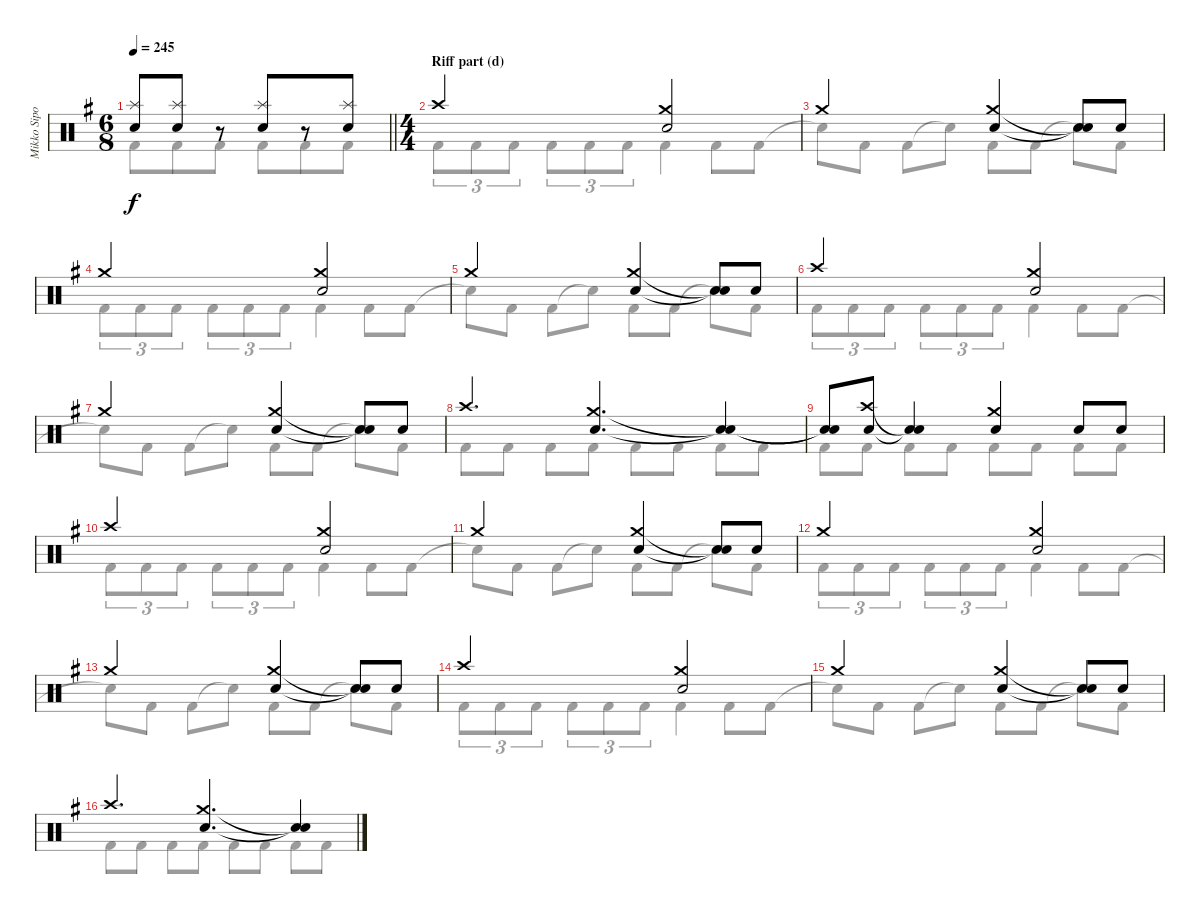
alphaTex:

\track ("Mikko Sipola (drums)" "Mikko Sipo") {instrument percussion}
\staff {score}
\articulation defaults
\voice
\ts (6 8)
\tempo 245
\clef neutral
\barLineRight lightlight
\ks eminor
("Splash (hit)" "Snare (hit) 2").8{dy f} ("Splash (hit)" "Snare (hit) 2").8 r.8 ("Splash (hit)" "Snare (hit) 2").8 r.8 ("Splash (hit)" "Snare (hit) 2").8 |
\ts (4 4)
\section ("" "Riff part (d)")
"Crash high (hit)".2 ("Crash medium (hit)" "Snare (hit) 2").2 |
"Crash medium (hit)".2 ("Crash medium (hit)" "Snare (hit) 2").4 ("Snare (hit)"{t} "Snare (hit)"{t}).8 "Snare (hit) 2".8 |
"Crash medium (hit)".2 ("Crash medium (hit)" "Snare (hit) 2").2 |
"Crash medium (hit)".2 ("Crash medium (hit)" "Snare (hit) 2").4 ("Snare (hit)"{t} "Snare (hit)"{t}).8 "Snare (hit) 2".8 |
"Crash high (hit)".2 ("Crash medium (hit)" "Snare (hit) 2").2 |
"Crash medium (hit)".2 ("Crash medium (hit)" "Snare (hit) 2").4 ("Snare (hit)"{t} "Snare (hit)"{t}).8 "Snare (hit) 2".8 |
"Crash high (hit)".4{d} ("Crash medium (hit)" "Snare (hit) 2").4{d} ("Snare (hit)"{t} "Snare (hit)"{t}).4 |
("Snare (hit)"{t} "Snare (hit)"{t}).8 ("Crash high (hit)" "Snare (hit) 2").8 ("Snare (hit)"{t} "Snare (hit)"{t}).4 ("Crash medium (hit)" "Snare (hit) 2").4 "Snare (hit) 2".8 "Snare (hit) 2".8 |
"Crash high (hit)".2 ("Crash medium (hit)" "Snare (hit) 2").2 |
"Crash medium (hit)".2 ("Crash medium (hit)" "Snare (hit) 2").4 ("Snare (hit)"{t} "Snare (hit)"{t}).8 "Snare (hit) 2".8 |
"Crash medium (hit)".2 ("Crash medium (hit)" "Snare (hit) 2").2 |
"Crash medium (hit)".2 ("Crash medium (hit)" "Snare (hit) 2").4 ("Snare (hit)"{t} "Snare (hit)"{t}).8 "Snare (hit) 2".8 |
"Crash high (hit)".2 ("Crash medium (hit)" "Snare (hit) 2").2 |
"Crash medium (hit)".2 ("Crash medium (hit)" "Snare (hit) 2").4 ("Snare (hit)"{t} "Snare (hit)"{t}).8 "Snare (hit) 2".8 |
"Crash high (hit)".4{d} ("Crash medium (hit)" "Snare (hit) 2").4{d} ("Snare (hit)"{t} "Snare (hit)"{t}).4
\voice
\clef neutral
\ottava regular
\simile none
\barLineRight lightlight
\ks eminor "Kick (hit) 2".8{dy f} "Kick (hit) 2".8 "Kick (hit) 2".8 "Kick (hit) 2".8 "Kick (hit) 2".8 "Kick (hit) 2".8
|
"Kick (hit) 2".8{tu (3 2)} "Kick (hit) 2".8{tu (3 2)} "Kick (hit) 2".8{tu (3 2)} "Kick (hit) 2".8{tu (3 2)} "Kick (hit) 2".8{tu (3 2)} "Kick (hit) 2".8{tu (3 2)} "Kick (hit) 2".4 "Kick (hit) 2".8 "Kick (hit) 2".8 |
"Snare (hit)"{t}.8 "Kick (hit) 2".8 "Kick (hit) 2".8 "Snare (hit)"{t}.8 "Kick (hit) 2".8 "Kick (hit) 2".8 "Snare (hit)"{t}.8 "Kick (hit) 2".8 |
"Kick (hit) 2".8{tu (3 2)} "Kick (hit) 2".8{tu (3 2)} "Kick (hit) 2".8{tu (3 2)} "Kick (hit) 2".8{tu (3 2)} "Kick (hit) 2".8{tu (3 2)} "Kick (hit) 2".8{tu (3 2)} "Kick (hit) 2".4 "Kick (hit) 2".8 "Kick (hit) 2".8 |
"Snare (hit)"{t}.8 "Kick (hit) 2".8 "Kick (hit) 2".8 "Snare (hit)"{t}.8 "Kick (hit) 2".8 "Kick (hit) 2".8 "Snare (hit)"{t}.8 "Kick (hit) 2".8 |
"Kick (hit) 2".8{tu (3 2)} "Kick (hit) 2".8{tu (3 2)} "Kick (hit) 2".8{tu (3 2)} "Kick (hit) 2".8{tu (3 2)} "Kick (hit) 2".8{tu (3 2)} "Kick (hit) 2".8{tu (3 2)} "Kick (hit) 2".4 "Kick (hit) 2".8 "Kick (hit) 2".8 |
"Snare (hit)"{t}.8 "Kick (hit) 2".8 "Kick (hit) 2".8 "Snare (hit)"{t}.8 "Kick (hit) 2".8 "Kick (hit) 2".8 "Snare (hit)"{t}.8 "Kick (hit) 2".8 |
"Kick (hit) 2".8 "Kick (hit) 2".8 "Kick (hit) 2".8 "Kick (hit) 2".8 "Kick (hit) 2".8 "Kick (hit) 2".8 "Kick (hit) 2".8 "Kick (hit) 2".8 |
"Kick (hit) 2".8 "Kick (hit) 2".8 "Kick (hit) 2".8 "Kick (hit) 2".8 "Kick (hit) 2".8 "Kick (hit) 2".8 "Kick (hit) 2".8 "Kick (hit) 2".8 |
"Kick (hit) 2".8{tu (3 2)} "Kick (hit) 2".8{tu (3 2)} "Kick (hit) 2".8{tu (3 2)} "Kick (hit) 2".8{tu (3 2)} "Kick (hit) 2".8{tu (3 2)} "Kick (hit) 2".8{tu (3 2)} "Kick (hit) 2".4 "Kick (hit) 2".8 "Kick (hit) 2".8 |
"Snare (hit)"{t}.8 "Kick (hit) 2".8 "Kick (hit) 2".8 "Snare (hit)"{t}.8 "Kick (hit) 2".8 "Kick (hit) 2".8 "Snare (hit)"{t}.8 "Kick (hit) 2".8 |
"Kick (hit) 2".8{tu (3 2)} "Kick (hit) 2".8{tu (3 2)} "Kick (hit) 2".8{tu (3 2)} "Kick (hit) 2".8{tu (3 2)} "Kick (hit) 2".8{tu (3 2)} "Kick (hit) 2".8{tu (3 2)} "Kick (hit) 2".4 "Kick (hit) 2".8 "Kick (hit) 2".8 |
"Snare (hit)"{t}.8 "Kick (hit) 2".8 "Kick (hit) 2".8 "Snare (hit)"{t}.8 "Kick (hit) 2".8 "Kick (hit) 2".8 "Snare (hit)"{t}.8 "Kick (hit) 2".8 |
"Kick (hit) 2".8{tu (3 2)} "Kick (hit) 2".8{tu (3 2)} "Kick (hit) 2".8{tu (3 2)} "Kick (hit) 2".8{tu (3 2)} "Kick (hit) 2".8{tu (3 2)} "Kick (hit) 2".8{tu (3 2)} "Kick (hit) 2".4 "Kick (hit) 2".8 "Kick (hit) 2".8 |
"Snare (hit)"{t}.8 "Kick (hit) 2".8 "Kick (hit) 2".8 "Snare (hit)"{t}.8 "Kick (hit) 2".8 "Kick (hit) 2".8 "Snare (hit)"{t}.8 "Kick (hit) 2".8 |
"Kick (hit) 2".8 "Kick (hit) 2".8 "Kick (hit) 2".8 "Kick (hit) 2".8 "Kick (hit) 2".8 "Kick (hit) 2".8 "Kick (hit) 2".8 "Kick (hit) 2".8
